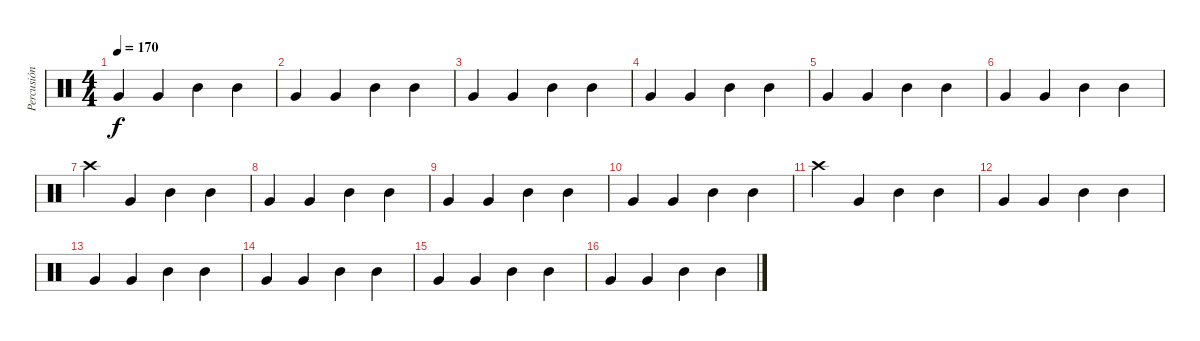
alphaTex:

\track ("Percusión" "Percusión") {instrument percussion}
\staff {score}
\articulation defaults
\ts (4 4)
\tempo 170
\clef neutral
\ks c "Very Low Tom (hit)".4{dy f} "Very Low Tom (hit)".4 "Mid Tom (hit)".4 "Mid Tom (hit)".4
|
"Very Low Tom (hit)".4 "Very Low Tom (hit)".4 "Mid Tom (hit)".4 "Mid Tom (hit)".4 |
"Very Low Tom (hit)".4 "Very Low Tom (hit)".4 "Mid Tom (hit)".4 "Mid Tom (hit)".4 |
"Very Low Tom (hit)".4 "Very Low Tom (hit)".4 "Mid Tom (hit)".4 "Mid Tom (hit)".4 |
"Very Low Tom (hit)".4 "Very Low Tom (hit)".4 "Mid Tom (hit)".4 "Mid Tom (hit)".4 |
"Very Low Tom (hit)".4 "Very Low Tom (hit)".4 "Mid Tom (hit)".4 "Mid Tom (hit)".4 |
"Crash high (hit)".4 "Very Low Tom (hit)".4 "Mid Tom (hit)".4 "Mid Tom (hit)".4 |
"Very Low Tom (hit)".4 "Very Low Tom (hit)".4 "Mid Tom (hit)".4 "Mid Tom (hit)".4 |
"Very Low Tom (hit)".4 "Very Low Tom (hit)".4 "Mid Tom (hit)".4 "Mid Tom (hit)".4 |
"Very Low Tom (hit)".4 "Very Low Tom (hit)".4 "Mid Tom (hit)".4 "Mid Tom (hit)".4 |
"Crash high (hit)".4 "Very Low Tom (hit)".4 "Mid Tom (hit)".4 "Mid Tom (hit)".4 |
"Very Low Tom (hit)".4 "Very Low Tom (hit)".4 "Mid Tom (hit)".4 "Mid Tom (hit)".4 |
"Very Low Tom (hit)".4 "Very Low Tom (hit)".4 "Mid Tom (hit)".4 "Mid Tom (hit)".4 |
"Very Low Tom (hit)".4 "Very Low Tom (hit)".4 "Mid Tom (hit)".4 "Mid Tom (hit)".4 |
"Very Low Tom (hit)".4 "Very Low Tom (hit)".4 "Mid Tom (hit)".4 "Mid Tom (hit)".4 |
"Very Low Tom (hit)".4 "Very Low Tom (hit)".4 "Mid Tom (hit)".4 "Mid Tom (hit)".4
